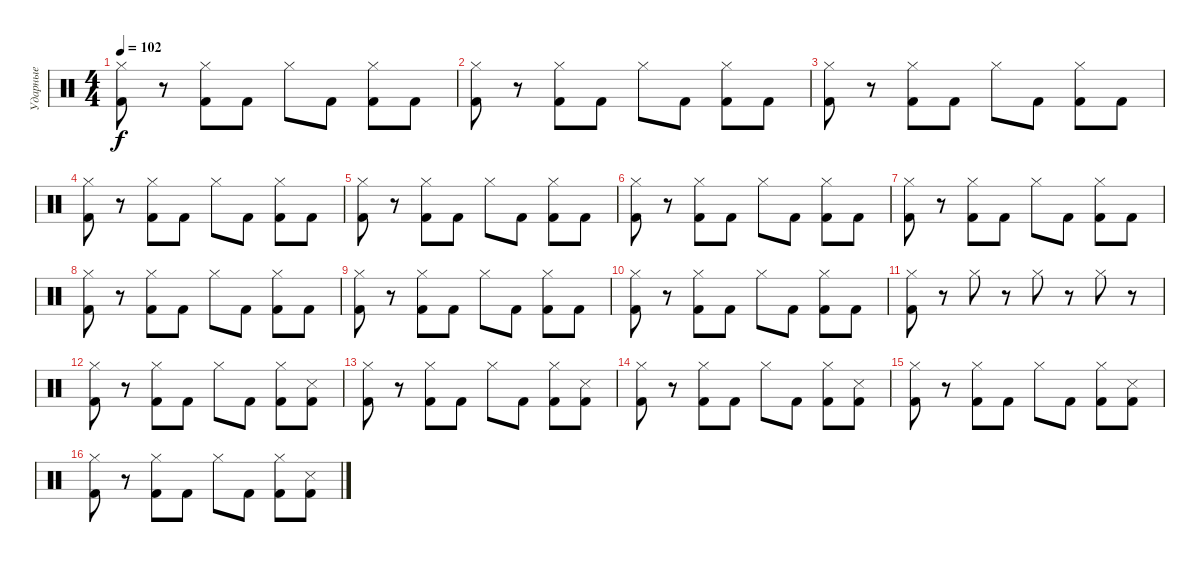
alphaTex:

\track ("Ударные" "Ударные") {instrument percussion}
\staff {score}
\articulation defaults
\ts (4 4)
\tempo 102
\clef neutral
\ks c
("Hi-Hat (closed)" "Kick (hit) 2").8{dy f} r.8 ("Hi-Hat (closed)" "Kick (hit) 2").8 "Kick (hit) 2".8 "Hi-Hat (closed)".8 "Kick (hit) 2".8 ("Hi-Hat (closed)" "Kick (hit) 2").8 "Kick (hit) 2".8 |
("Hi-Hat (closed)" "Kick (hit) 2").8 r.8 ("Hi-Hat (closed)" "Kick (hit) 2").8 "Kick (hit) 2".8 "Hi-Hat (closed)".8 "Kick (hit) 2".8 ("Hi-Hat (closed)" "Kick (hit) 2").8 "Kick (hit) 2".8 |
("Hi-Hat (closed)" "Kick (hit) 2").8 r.8 ("Hi-Hat (closed)" "Kick (hit) 2").8 "Kick (hit) 2".8 "Hi-Hat (closed)".8 "Kick (hit) 2".8 ("Hi-Hat (closed)" "Kick (hit) 2").8 "Kick (hit) 2".8 |
("Hi-Hat (closed)" "Kick (hit) 2").8 r.8 ("Hi-Hat (closed)" "Kick (hit) 2").8 "Kick (hit) 2".8 "Hi-Hat (closed)".8 "Kick (hit) 2".8 ("Hi-Hat (closed)" "Kick (hit) 2").8 "Kick (hit) 2".8 |
("Hi-Hat (closed)" "Kick (hit) 2").8 r.8 ("Hi-Hat (closed)" "Kick (hit) 2").8 "Kick (hit) 2".8 "Hi-Hat (closed)".8 "Kick (hit) 2".8 ("Hi-Hat (closed)" "Kick (hit) 2").8 "Kick (hit) 2".8 |
("Hi-Hat (closed)" "Kick (hit) 2").8 r.8 ("Hi-Hat (closed)" "Kick (hit) 2").8 "Kick (hit) 2".8 "Hi-Hat (closed)".8 "Kick (hit) 2".8 ("Hi-Hat (closed)" "Kick (hit) 2").8 "Kick (hit) 2".8 |
("Hi-Hat (closed)" "Kick (hit) 2").8 r.8 ("Hi-Hat (closed)" "Kick (hit) 2").8 "Kick (hit) 2".8 "Hi-Hat (closed)".8 "Kick (hit) 2".8 ("Hi-Hat (closed)" "Kick (hit) 2").8 "Kick (hit) 2".8 |
("Hi-Hat (closed)" "Kick (hit) 2").8 r.8 ("Hi-Hat (closed)" "Kick (hit) 2").8 "Kick (hit) 2".8 "Hi-Hat (closed)".8 "Kick (hit) 2".8 ("Hi-Hat (closed)" "Kick (hit) 2").8 "Kick (hit) 2".8 |
("Hi-Hat (closed)" "Kick (hit) 2").8 r.8 ("Hi-Hat (closed)" "Kick (hit) 2").8 "Kick (hit) 2".8 "Hi-Hat (closed)".8 "Kick (hit) 2".8 ("Hi-Hat (closed)" "Kick (hit) 2").8 "Kick (hit) 2".8 |
("Hi-Hat (closed)" "Kick (hit) 2").8 r.8 ("Hi-Hat (closed)" "Kick (hit) 2").8 "Kick (hit) 2".8 "Hi-Hat (closed)".8 "Kick (hit) 2".8 ("Hi-Hat (closed)" "Kick (hit) 2").8 "Kick (hit) 2".8 |
("Hi-Hat (closed)" "Kick (hit) 2").8 r.8 "Hi-Hat (closed)".8 r.8 "Hi-Hat (closed)".8 r.8 "Hi-Hat (closed)".8 r.8 |
("Hi-Hat (closed)" "Kick (hit) 2").8 r.8 ("Hi-Hat (closed)" "Kick (hit) 2").8 "Kick (hit) 2".8 "Hi-Hat (closed)".8 "Kick (hit) 2".8 ("Hi-Hat (closed)" "Kick (hit) 2").8 ("Metronome (hit)" "Kick (hit) 2").8 |
("Hi-Hat (closed)" "Kick (hit) 2").8 r.8 ("Hi-Hat (closed)" "Kick (hit) 2").8 "Kick (hit) 2".8 "Hi-Hat (closed)".8 "Kick (hit) 2".8 ("Hi-Hat (closed)" "Kick (hit) 2").8 ("Metronome (hit)" "Kick (hit) 2").8 |
("Hi-Hat (closed)" "Kick (hit) 2").8 r.8 ("Hi-Hat (closed)" "Kick (hit) 2").8 "Kick (hit) 2".8 "Hi-Hat (closed)".8 "Kick (hit) 2".8 ("Hi-Hat (closed)" "Kick (hit) 2").8 ("Metronome (hit)" "Kick (hit) 2").8 |
("Hi-Hat (closed)" "Kick (hit) 2").8 r.8 ("Hi-Hat (closed)" "Kick (hit) 2").8 "Kick (hit) 2".8 "Hi-Hat (closed)".8 "Kick (hit) 2".8 ("Hi-Hat (closed)" "Kick (hit) 2").8 ("Metronome (hit)" "Kick (hit) 2").8 |
("Hi-Hat (closed)" "Kick (hit) 2").8 r.8 ("Hi-Hat (closed)" "Kick (hit) 2").8 "Kick (hit) 2".8 "Hi-Hat (closed)".8 "Kick (hit) 2".8 ("Hi-Hat (closed)" "Kick (hit) 2").8 ("Metronome (hit)" "Kick (hit) 2").8
